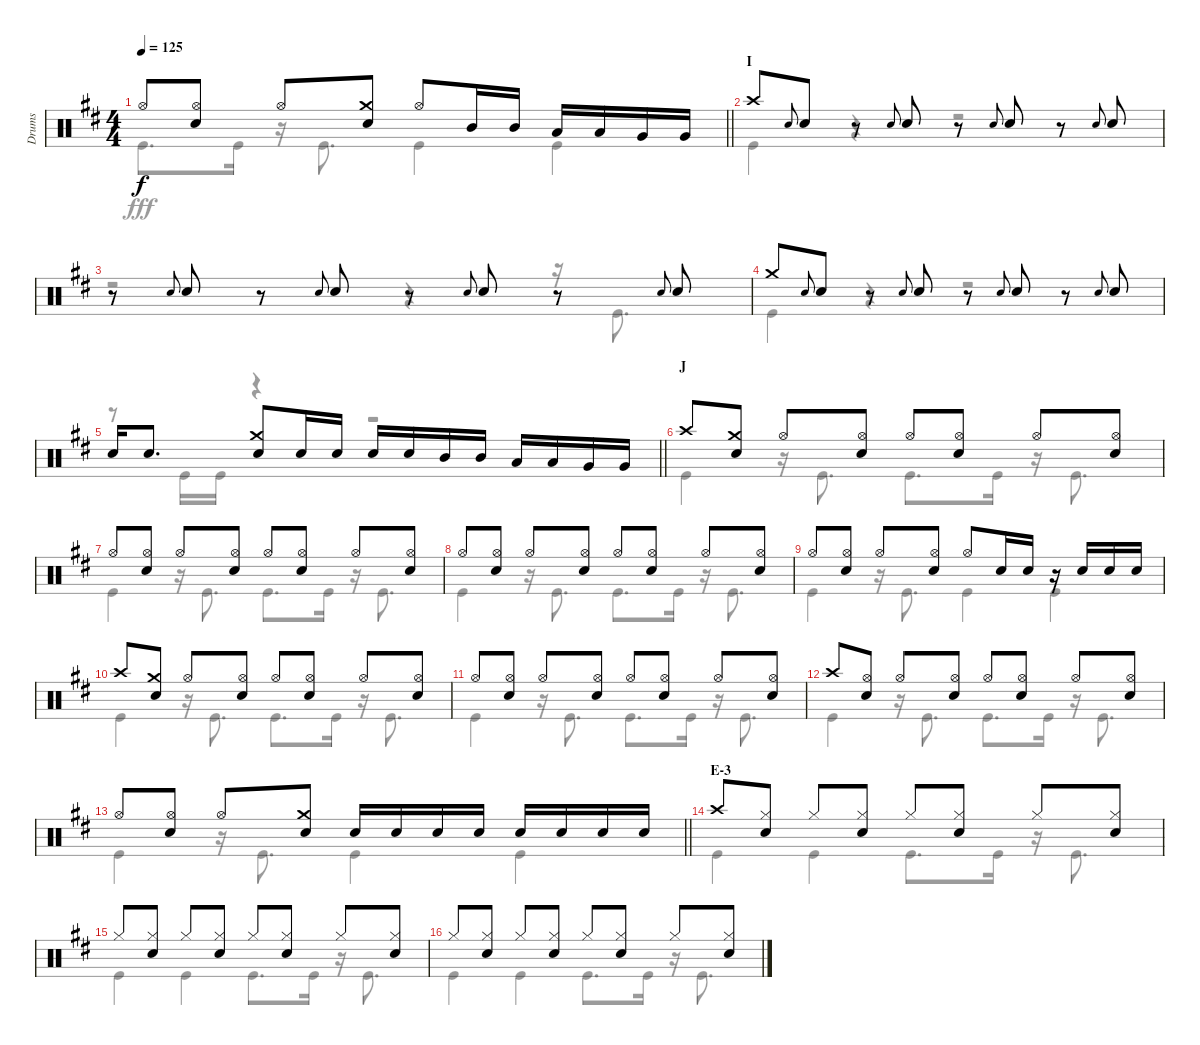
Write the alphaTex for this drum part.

\track ("Drums" "Drums") {instrument percussion}
\staff {score}
\articulation defaults
\voice
\ts (4 4)
\tempo 125
\clef neutral
\barLineRight lightlight
\ks d "Hi-Hat (open)".8{dy f}
("Hi-Hat (open)" "Snare (hit) 2").8 "Hi-Hat (open)".8 ("Crash medium (hit)" "Snare (hit) 2").8 "Hi-Hat (open)".8 "Mid Tom (hit)".16 "Mid Tom (hit)".16 "Low Tom (hit)".16 "Low Tom (hit)".16 "Very Low Tom (hit)".16 "Very Low Tom (hit)".16 |
\section ("" "I")
"Crash high (hit)".8 "Snare (hit) 2".8{gr onbeat} "Snare (hit) 2".8 r.8 "Snare (hit) 2".8{gr onbeat} "Snare (hit) 2".8 r.8 "Snare (hit) 2".8{gr onbeat} "Snare (hit) 2".8 r.8 "Snare (hit) 2".8{gr onbeat} "Snare (hit) 2".8 |
r.8 "Snare (hit) 2".8{gr onbeat} "Snare (hit) 2".8 r.8 "Snare (hit) 2".8{gr onbeat} "Snare (hit) 2".8 r.8 "Snare (hit) 2".8{gr onbeat} "Snare (hit) 2".8 r.8 "Snare (hit) 2".8{gr onbeat} "Snare (hit) 2".8 |
"Crash medium (hit)".8 "Snare (hit) 2".8{gr onbeat} "Snare (hit) 2".8 r.8 "Snare (hit) 2".8{gr onbeat} "Snare (hit) 2".8 r.8 "Snare (hit) 2".8{gr onbeat} "Snare (hit) 2".8 r.8 "Snare (hit) 2".8{gr onbeat} "Snare (hit) 2".8 |
\barLineRight lightlight "Snare (hit) 2".16 "Snare (hit) 2".8{d}
("Crash medium (hit)" "Snare (hit) 2").8 "Snare (hit) 2".16 "Snare (hit) 2".16 "Snare (hit) 2".16 "Snare (hit) 2".16 "Mid Tom (hit)".16 "Mid Tom (hit)".16 "Low Tom (hit)".16 "Low Tom (hit)".16 "Very Low Tom (hit)".16 "Very Low Tom (hit)".16 |
\section ("" "J")
"Crash high (hit)".8 ("Crash medium (hit)" "Snare (hit) 2").8 "Hi-Hat (open)".8 ("Hi-Hat (open)" "Snare (hit) 2").8 "Hi-Hat (open)".8 ("Hi-Hat (open)" "Snare (hit) 2").8 "Hi-Hat (open)".8 ("Hi-Hat (open)" "Snare (hit) 2").8 |
"Hi-Hat (open)".8 ("Hi-Hat (open)" "Snare (hit) 2").8 "Hi-Hat (open)".8 ("Hi-Hat (open)" "Snare (hit) 2").8 "Hi-Hat (open)".8 ("Hi-Hat (open)" "Snare (hit) 2").8 "Hi-Hat (open)".8 ("Hi-Hat (open)" "Snare (hit) 2").8 |
"Hi-Hat (open)".8 ("Hi-Hat (open)" "Snare (hit) 2").8 "Hi-Hat (open)".8 ("Hi-Hat (open)" "Snare (hit) 2").8 "Hi-Hat (open)".8 ("Hi-Hat (open)" "Snare (hit) 2").8 "Hi-Hat (open)".8 ("Hi-Hat (open)" "Snare (hit) 2").8 |
"Hi-Hat (open)".8 ("Hi-Hat (open)" "Snare (hit) 2").8 "Hi-Hat (open)".8 ("Hi-Hat (open)" "Snare (hit) 2").8 "Hi-Hat (open)".8 "Snare (hit) 2".16 "Snare (hit) 2".16 r.16 "Snare (hit) 2".16 "Snare (hit) 2".16 "Snare (hit) 2".16 |
"Crash high (hit)".8 ("Crash medium (hit)" "Snare (hit) 2").8 "Hi-Hat (open)".8 ("Hi-Hat (open)" "Snare (hit) 2").8 "Hi-Hat (open)".8 ("Hi-Hat (open)" "Snare (hit) 2").8 "Hi-Hat (open)".8 ("Hi-Hat (open)" "Snare (hit) 2").8 |
"Hi-Hat (open)".8 ("Hi-Hat (open)" "Snare (hit) 2").8 "Hi-Hat (open)".8 ("Hi-Hat (open)" "Snare (hit) 2").8 "Hi-Hat (open)".8 ("Hi-Hat (open)" "Snare (hit) 2").8 "Hi-Hat (open)".8 ("Hi-Hat (open)" "Snare (hit) 2").8 |
"Crash high (hit)".8 ("Hi-Hat (open)" "Snare (hit) 2").8 "Hi-Hat (open)".8 ("Hi-Hat (open)" "Snare (hit) 2").8 "Hi-Hat (open)".8 ("Hi-Hat (open)" "Snare (hit) 2").8 "Hi-Hat (open)".8 ("Hi-Hat (open)" "Snare (hit) 2").8 |
\barLineRight lightlight "Hi-Hat (open)".8
("Hi-Hat (open)" "Snare (hit) 2").8 "Hi-Hat (open)".8 ("Crash medium (hit)" "Snare (hit) 2").8 "Snare (hit) 2".16 "Snare (hit) 2".16 "Snare (hit) 2".16 "Snare (hit) 2".16 "Snare (hit) 2".16 "Snare (hit) 2".16 "Snare (hit) 2".16 "Snare (hit) 2".16 |
\section ("" "E-3")
"Crash high (hit)".8 ("Hi-Hat (closed)" "Snare (hit) 2").8 "Hi-Hat (closed)".8 ("Hi-Hat (closed)" "Snare (hit) 2").8 "Hi-Hat (closed)".8 ("Hi-Hat (closed)" "Snare (hit) 2").8 "Hi-Hat (closed)".8 ("Hi-Hat (closed)" "Snare (hit) 2").8 |
"Hi-Hat (closed)".8 ("Hi-Hat (closed)" "Snare (hit) 2").8 "Hi-Hat (closed)".8 ("Hi-Hat (closed)" "Snare (hit) 2").8 "Hi-Hat (closed)".8 ("Hi-Hat (closed)" "Snare (hit) 2").8 "Hi-Hat (closed)".8 ("Hi-Hat (closed)" "Snare (hit) 2").8 |
"Hi-Hat (closed)".8 ("Hi-Hat (closed)" "Snare (hit) 2").8 "Hi-Hat (closed)".8 ("Hi-Hat (closed)" "Snare (hit) 2").8 "Hi-Hat (closed)".8 ("Hi-Hat (closed)" "Snare (hit) 2").8 "Hi-Hat (closed)".8 ("Hi-Hat (closed)" "Snare (hit) 2").8
\voice
\clef neutral
\ottava regular
\simile none
\barLineRight lightlight
\ks d "Kick (hit)".8{d dy fff} "Kick (hit)".16
r.16 "Kick (hit)".8{d} "Kick (hit)".4 "Kick (hit)".4 |
"Kick (hit)".4 r.4 r.2 |
r.2 r.4 r.16 "Kick (hit)".8{d} |
"Kick (hit)".4 r.4 r.2 |
\barLineRight lightlight
r.8 "Kick (hit)".16 "Kick (hit)".16 r.4 r.2 |
"Kick (hit)".4 r.16 "Kick (hit)".8{d} "Kick (hit)".8{d} "Kick (hit)".16 r.16 "Kick (hit)".8{d} |
"Kick (hit)".4 r.16 "Kick (hit)".8{d} "Kick (hit)".8{d} "Kick (hit)".16 r.16 "Kick (hit)".8{d} |
"Kick (hit)".4 r.16 "Kick (hit)".8{d} "Kick (hit)".8{d} "Kick (hit)".16 r.16 "Kick (hit)".8{d} |
"Kick (hit)".4 r.16 "Kick (hit)".8{d} "Kick (hit)".4 "Kick (hit)".4 |
"Kick (hit)".4 r.16 "Kick (hit)".8{d} "Kick (hit)".8{d} "Kick (hit)".16 r.16 "Kick (hit)".8{d} |
"Kick (hit)".4 r.16 "Kick (hit)".8{d} "Kick (hit)".8{d} "Kick (hit)".16 r.16 "Kick (hit)".8{d} |
"Kick (hit)".4 r.16 "Kick (hit)".8{d} "Kick (hit)".8{d} "Kick (hit)".16 r.16 "Kick (hit)".8{d} |
\barLineRight lightlight "Kick (hit)".4
r.16 "Kick (hit)".8{d} "Kick (hit)".4 "Kick (hit)".4 |
"Kick (hit)".4 "Kick (hit)".4 "Kick (hit)".8{d} "Kick (hit)".16 r.16 "Kick (hit)".8{d} |
"Kick (hit)".4 "Kick (hit)".4 "Kick (hit)".8{d} "Kick (hit)".16 r.16 "Kick (hit)".8{d} |
"Kick (hit)".4 "Kick (hit)".4 "Kick (hit)".8{d} "Kick (hit)".16 r.16 "Kick (hit)".8{d}
